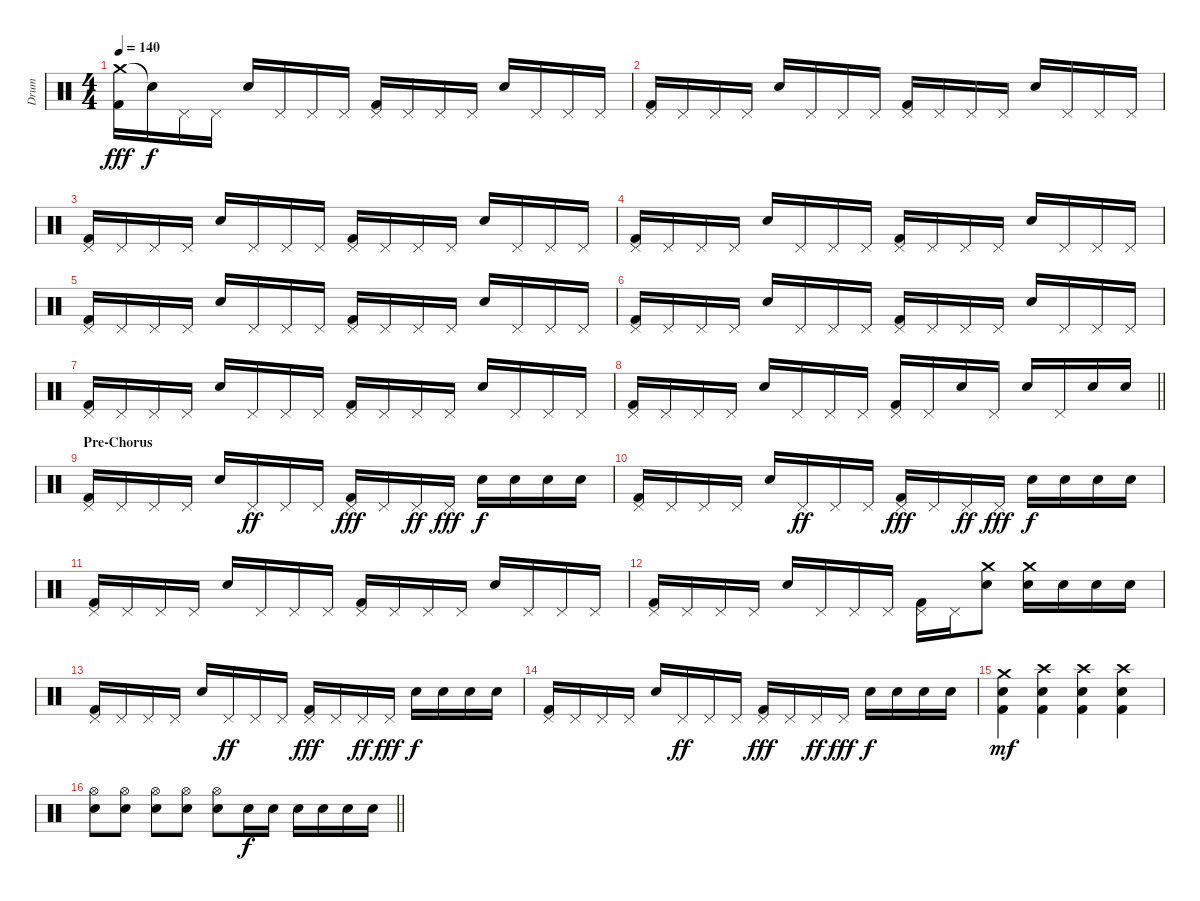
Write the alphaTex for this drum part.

\track ("Drum" "Drum") {instrument percussion}
\staff {score}
\articulation defaults
\ts (4 4)
\tempo 140
\clef neutral
\ks c
("Crash medium (hit)" "Kick (hit) 2").16{dy fff} "Snare (hit)"{t}.16{dy f} "Pedal Hi-Hat (hit)".16 "Pedal Hi-Hat (hit)".16 "Snare (hit) 2".16 "Pedal Hi-Hat (hit)".16 "Pedal Hi-Hat (hit)".16 "Pedal Hi-Hat (hit)".16 ("Pedal Hi-Hat (hit)" "Kick (hit) 2").16 "Pedal Hi-Hat (hit)".16 "Pedal Hi-Hat (hit)".16 "Pedal Hi-Hat (hit)".16 "Snare (hit) 2".16 "Pedal Hi-Hat (hit)".16 "Pedal Hi-Hat (hit)".16 "Pedal Hi-Hat (hit)".16 |
("Pedal Hi-Hat (hit)" "Kick (hit) 2").16 "Pedal Hi-Hat (hit)".16 "Pedal Hi-Hat (hit)".16 "Pedal Hi-Hat (hit)".16 "Snare (hit) 2".16 "Pedal Hi-Hat (hit)".16 "Pedal Hi-Hat (hit)".16 "Pedal Hi-Hat (hit)".16 ("Pedal Hi-Hat (hit)" "Kick (hit) 2").16 "Pedal Hi-Hat (hit)".16 "Pedal Hi-Hat (hit)".16 "Pedal Hi-Hat (hit)".16 "Snare (hit) 2".16 "Pedal Hi-Hat (hit)".16 "Pedal Hi-Hat (hit)".16 "Pedal Hi-Hat (hit)".16 |
("Pedal Hi-Hat (hit)" "Kick (hit) 2").16 "Pedal Hi-Hat (hit)".16 "Pedal Hi-Hat (hit)".16 "Pedal Hi-Hat (hit)".16 "Snare (hit) 2".16 "Pedal Hi-Hat (hit)".16 "Pedal Hi-Hat (hit)".16 "Pedal Hi-Hat (hit)".16 ("Pedal Hi-Hat (hit)" "Kick (hit) 2").16 "Pedal Hi-Hat (hit)".16 "Pedal Hi-Hat (hit)".16 "Pedal Hi-Hat (hit)".16 "Snare (hit) 2".16 "Pedal Hi-Hat (hit)".16 "Pedal Hi-Hat (hit)".16 "Pedal Hi-Hat (hit)".16 |
("Pedal Hi-Hat (hit)" "Kick (hit) 2").16 "Pedal Hi-Hat (hit)".16 "Pedal Hi-Hat (hit)".16 "Pedal Hi-Hat (hit)".16 "Snare (hit) 2".16 "Pedal Hi-Hat (hit)".16 "Pedal Hi-Hat (hit)".16 "Pedal Hi-Hat (hit)".16 ("Pedal Hi-Hat (hit)" "Kick (hit) 2").16 "Pedal Hi-Hat (hit)".16 "Pedal Hi-Hat (hit)".16 "Pedal Hi-Hat (hit)".16 "Snare (hit) 2".16 "Pedal Hi-Hat (hit)".16 "Pedal Hi-Hat (hit)".16 "Pedal Hi-Hat (hit)".16 |
("Pedal Hi-Hat (hit)" "Kick (hit) 2").16 "Pedal Hi-Hat (hit)".16 "Pedal Hi-Hat (hit)".16 "Pedal Hi-Hat (hit)".16 "Snare (hit) 2".16 "Pedal Hi-Hat (hit)".16 "Pedal Hi-Hat (hit)".16 "Pedal Hi-Hat (hit)".16 ("Pedal Hi-Hat (hit)" "Kick (hit) 2").16 "Pedal Hi-Hat (hit)".16 "Pedal Hi-Hat (hit)".16 "Pedal Hi-Hat (hit)".16 "Snare (hit) 2".16 "Pedal Hi-Hat (hit)".16 "Pedal Hi-Hat (hit)".16 "Pedal Hi-Hat (hit)".16 |
("Pedal Hi-Hat (hit)" "Kick (hit) 2").16 "Pedal Hi-Hat (hit)".16 "Pedal Hi-Hat (hit)".16 "Pedal Hi-Hat (hit)".16 "Snare (hit) 2".16 "Pedal Hi-Hat (hit)".16 "Pedal Hi-Hat (hit)".16 "Pedal Hi-Hat (hit)".16 ("Pedal Hi-Hat (hit)" "Kick (hit) 2").16 "Pedal Hi-Hat (hit)".16 "Pedal Hi-Hat (hit)".16 "Pedal Hi-Hat (hit)".16 "Snare (hit) 2".16 "Pedal Hi-Hat (hit)".16 "Pedal Hi-Hat (hit)".16 "Pedal Hi-Hat (hit)".16 |
("Pedal Hi-Hat (hit)" "Kick (hit) 2").16 "Pedal Hi-Hat (hit)".16 "Pedal Hi-Hat (hit)".16 "Pedal Hi-Hat (hit)".16 "Snare (hit) 2".16 "Pedal Hi-Hat (hit)".16 "Pedal Hi-Hat (hit)".16 "Pedal Hi-Hat (hit)".16 ("Pedal Hi-Hat (hit)" "Kick (hit) 2").16 "Pedal Hi-Hat (hit)".16 "Pedal Hi-Hat (hit)".16 "Pedal Hi-Hat (hit)".16 "Snare (hit) 2".16 "Pedal Hi-Hat (hit)".16 "Pedal Hi-Hat (hit)".16 "Pedal Hi-Hat (hit)".16 |
\barLineRight lightlight
("Pedal Hi-Hat (hit)" "Kick (hit) 2").16 "Pedal Hi-Hat (hit)".16 "Pedal Hi-Hat (hit)".16 "Pedal Hi-Hat (hit)".16 "Snare (hit) 2".16 "Pedal Hi-Hat (hit)".16 "Pedal Hi-Hat (hit)".16 "Pedal Hi-Hat (hit)".16 ("Pedal Hi-Hat (hit)" "Kick (hit) 2").16 "Pedal Hi-Hat (hit)".16 "Snare (hit) 2".16 "Pedal Hi-Hat (hit)".16 "Snare (hit) 2".16 "Pedal Hi-Hat (hit)".16 "Snare (hit) 2".16 "Snare (hit) 2".16 |
\section ("" "Pre-Chorus")
("Pedal Hi-Hat (hit)" "Kick (hit) 2").16 "Pedal Hi-Hat (hit)".16 "Pedal Hi-Hat (hit)".16 "Pedal Hi-Hat (hit)".16 "Snare (hit) 2".16 "Pedal Hi-Hat (hit)".16{dy ff} "Pedal Hi-Hat (hit)".16 "Pedal Hi-Hat (hit)".16 ("Pedal Hi-Hat (hit)" "Kick (hit) 2").16{dy fff} "Pedal Hi-Hat (hit)".16 "Pedal Hi-Hat (hit)".16{dy ff} "Pedal Hi-Hat (hit)".16{dy fff} "Snare (hit) 2".16{dy f} "Snare (hit) 2".16 "Snare (hit) 2".16 "Snare (hit) 2".16 |
("Pedal Hi-Hat (hit)" "Kick (hit) 2").16 "Pedal Hi-Hat (hit)".16 "Pedal Hi-Hat (hit)".16 "Pedal Hi-Hat (hit)".16 "Snare (hit) 2".16 "Pedal Hi-Hat (hit)".16{dy ff} "Pedal Hi-Hat (hit)".16 "Pedal Hi-Hat (hit)".16 ("Pedal Hi-Hat (hit)" "Kick (hit) 2").16{dy fff} "Pedal Hi-Hat (hit)".16 "Pedal Hi-Hat (hit)".16{dy ff} "Pedal Hi-Hat (hit)".16{dy fff} "Snare (hit) 2".16{dy f} "Snare (hit) 2".16 "Snare (hit) 2".16 "Snare (hit) 2".16 |
("Pedal Hi-Hat (hit)" "Kick (hit) 2").16 "Pedal Hi-Hat (hit)".16 "Pedal Hi-Hat (hit)".16 "Pedal Hi-Hat (hit)".16 "Snare (hit) 2".16 "Pedal Hi-Hat (hit)".16 "Pedal Hi-Hat (hit)".16 "Pedal Hi-Hat (hit)".16 ("Pedal Hi-Hat (hit)" "Kick (hit) 2").16 "Pedal Hi-Hat (hit)".16 "Pedal Hi-Hat (hit)".16 "Pedal Hi-Hat (hit)".16 "Snare (hit) 2".16 "Pedal Hi-Hat (hit)".16 "Pedal Hi-Hat (hit)".16 "Pedal Hi-Hat (hit)".16 |
("Pedal Hi-Hat (hit)" "Kick (hit) 2").16 "Pedal Hi-Hat (hit)".16 "Pedal Hi-Hat (hit)".16 "Pedal Hi-Hat (hit)".16 "Snare (hit) 2".16 "Pedal Hi-Hat (hit)".16 "Pedal Hi-Hat (hit)".16 "Pedal Hi-Hat (hit)".16 ("Pedal Hi-Hat (hit)" "Kick (hit) 2").16 "Pedal Hi-Hat (hit)".16 ("Crash medium (hit)" "Snare (hit) 2").8 ("Crash medium (hit)" "Snare (hit) 2").16 "Snare (hit) 2".16 "Snare (hit) 2".16 "Snare (hit) 2".16 |
("Pedal Hi-Hat (hit)" "Kick (hit) 2").16 "Pedal Hi-Hat (hit)".16 "Pedal Hi-Hat (hit)".16 "Pedal Hi-Hat (hit)".16 "Snare (hit) 2".16 "Pedal Hi-Hat (hit)".16{dy ff} "Pedal Hi-Hat (hit)".16 "Pedal Hi-Hat (hit)".16 ("Pedal Hi-Hat (hit)" "Kick (hit) 2").16{dy fff} "Pedal Hi-Hat (hit)".16 "Pedal Hi-Hat (hit)".16{dy ff} "Pedal Hi-Hat (hit)".16{dy fff} "Snare (hit) 2".16{dy f} "Snare (hit) 2".16 "Snare (hit) 2".16 "Snare (hit) 2".16 |
("Pedal Hi-Hat (hit)" "Kick (hit) 2").16 "Pedal Hi-Hat (hit)".16 "Pedal Hi-Hat (hit)".16 "Pedal Hi-Hat (hit)".16 "Snare (hit) 2".16 "Pedal Hi-Hat (hit)".16{dy ff} "Pedal Hi-Hat (hit)".16 "Pedal Hi-Hat (hit)".16 ("Pedal Hi-Hat (hit)" "Kick (hit) 2").16{dy fff} "Pedal Hi-Hat (hit)".16 "Pedal Hi-Hat (hit)".16{dy ff} "Pedal Hi-Hat (hit)".16{dy fff} "Snare (hit) 2".16{dy f} "Snare (hit) 2".16 "Snare (hit) 2".16 "Snare (hit) 2".16 |
("Crash medium (hit)" "Snare (hit) 2" "Kick (hit) 2").4{dy mf} ("Crash high (hit)" "Snare (hit) 2" "Kick (hit) 2").4 ("Crash high (hit)" "Snare (hit) 2" "Kick (hit) 2").4 ("Crash high (hit)" "Snare (hit) 2" "Kick (hit) 2").4 |
\barLineRight lightlight
("Hi-Hat (open)" "Snare (hit) 2").8 ("Hi-Hat (open)" "Snare (hit) 2").8 ("Hi-Hat (open)" "Snare (hit) 2").8 ("Hi-Hat (open)" "Snare (hit) 2").8 ("Hi-Hat (open)" "Snare (hit) 2").8 "Snare (hit) 2".16{dy f} "Snare (hit) 2".16 "Snare (hit) 2".16 "Snare (hit) 2".16 "Snare (hit) 2".16 "Snare (hit) 2".16
